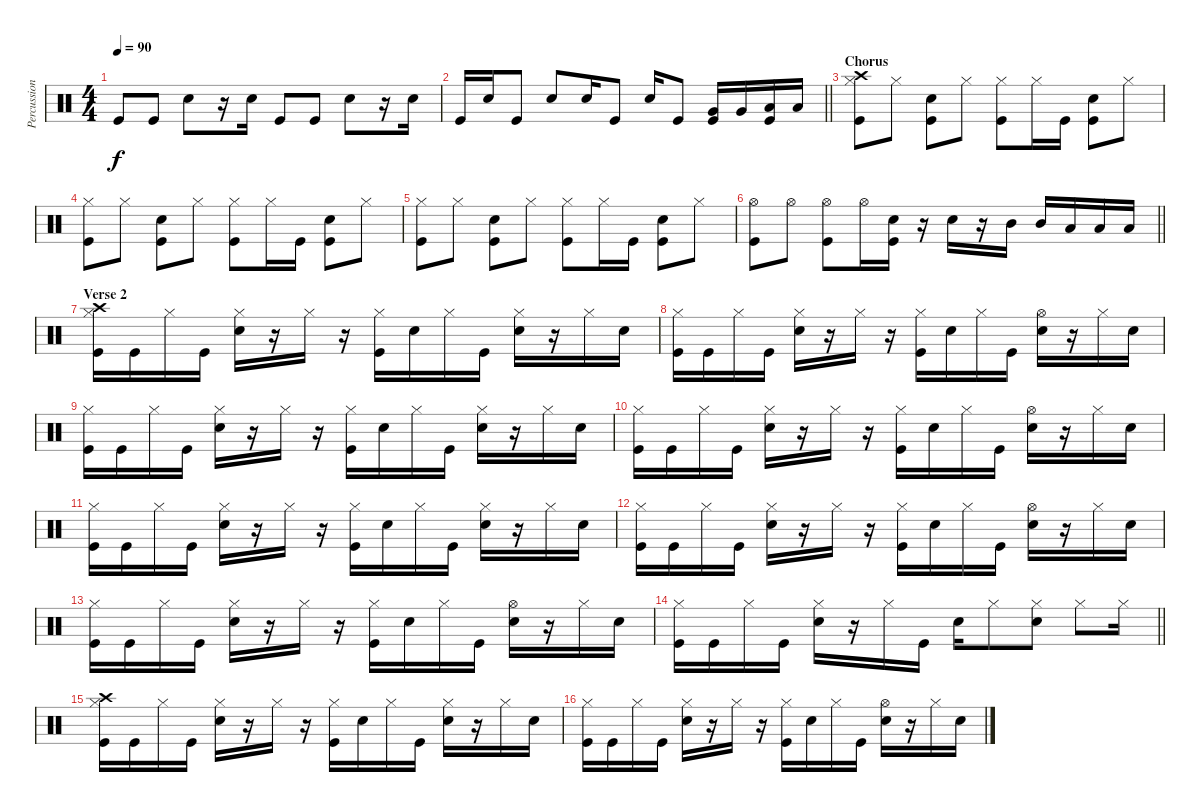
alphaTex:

\track ("Percussion" "Percussion") {instrument percussion}
\staff {score}
\articulation defaults
\ts (4 4)
\tempo 90
\clef neutral
\ks c "Kick (hit)".8{dy f} "Kick (hit)".8 "Snare (hit) 2".8
r.16 "Snare (hit) 2".16 "Kick (hit)".8 "Kick (hit)".8 "Snare (hit) 2".8 r.16 "Snare (hit) 2".16 |
\barLineRight lightlight "Kick (hit)".16 "Snare (hit) 2".16 "Kick (hit)".8 "Snare (hit) 2".8 "Snare (hit) 2".16 "Kick (hit)".8 "Snare (hit) 2".16 "Kick (hit)".8
("Very Low Tom (hit)" "Kick (hit)").16 "Very Low Tom (hit)".16 ("Low Floor Tom (hit)" "Kick (hit)").16 "Low Floor Tom (hit)".16 |
\section ("" "Chorus")
("Crash high (hit)" "Hi-Hat (closed)" "Kick (hit)").8 "Hi-Hat (closed)".8 ("Snare (hit) 2" "Kick (hit)").8 "Hi-Hat (closed)".8 ("Hi-Hat (closed)" "Kick (hit)").8 "Hi-Hat (closed)".16 "Kick (hit)".16 ("Snare (hit) 2" "Kick (hit)").8 "Hi-Hat (closed)".8 |
("Hi-Hat (closed)" "Kick (hit)").8 "Hi-Hat (closed)".8 ("Snare (hit) 2" "Kick (hit)").8 "Hi-Hat (closed)".8 ("Hi-Hat (closed)" "Kick (hit)").8 "Hi-Hat (closed)".16 "Kick (hit)".16 ("Snare (hit) 2" "Kick (hit)").8 "Hi-Hat (closed)".8 |
("Hi-Hat (closed)" "Kick (hit)").8 "Hi-Hat (closed)".8 ("Snare (hit) 2" "Kick (hit)").8 "Hi-Hat (closed)".8 ("Hi-Hat (closed)" "Kick (hit)").8 "Hi-Hat (closed)".16 "Kick (hit)".16 ("Snare (hit) 2" "Kick (hit)").8 "Hi-Hat (closed)".8 |
\barLineRight lightlight
("Hi-Hat (open)" "Kick (hit)").8 "Hi-Hat (open)".8 ("Hi-Hat (open)" "Kick (hit)").8 "Hi-Hat (open)".16 ("Snare (hit) 2" "Kick (hit)").16 r.16 "Snare (hit) 2".16 r.16 "Mid Tom (hit)".16 "Mid Tom (hit)".16 "Low Tom (hit)".16 "Low Tom (hit)".16 "Low Floor Tom (hit)".16 |
\section ("" "Verse 2")
("Crash high (hit)" "Hi-Hat (closed)" "Kick (hit)").16 "Kick (hit)".16 "Hi-Hat (closed)".16 "Kick (hit)".16 ("Hi-Hat (closed)" "Snare (hit) 2").16 r.16 "Hi-Hat (closed)".16 r.16 ("Hi-Hat (closed)" "Kick (hit)").16 "Snare (hit) 2".16 "Hi-Hat (closed)".16 "Kick (hit)".16 ("Hi-Hat (closed)" "Snare (hit) 2").16 r.16 "Hi-Hat (closed)".16 "Snare (hit) 2".16 |
("Hi-Hat (closed)" "Kick (hit)").16 "Kick (hit)".16 "Hi-Hat (closed)".16 "Kick (hit)".16 ("Hi-Hat (closed)" "Snare (hit) 2").16 r.16 "Hi-Hat (closed)".16 r.16 ("Hi-Hat (closed)" "Kick (hit)").16 "Snare (hit) 2".16 "Hi-Hat (closed)".16 "Kick (hit)".16 ("Hi-Hat (open)" "Snare (hit) 2").16 r.16 "Hi-Hat (closed)".16 "Snare (hit) 2".16 |
("Hi-Hat (closed)" "Kick (hit)").16 "Kick (hit)".16 "Hi-Hat (closed)".16 "Kick (hit)".16 ("Hi-Hat (closed)" "Snare (hit) 2").16 r.16 "Hi-Hat (closed)".16 r.16 ("Hi-Hat (closed)" "Kick (hit)").16 "Snare (hit) 2".16 "Hi-Hat (closed)".16 "Kick (hit)".16 ("Hi-Hat (closed)" "Snare (hit) 2").16 r.16 "Hi-Hat (closed)".16 "Snare (hit) 2".16 |
("Hi-Hat (closed)" "Kick (hit)").16 "Kick (hit)".16 "Hi-Hat (closed)".16 "Kick (hit)".16 ("Hi-Hat (closed)" "Snare (hit) 2").16 r.16 "Hi-Hat (closed)".16 r.16 ("Hi-Hat (closed)" "Kick (hit)").16 "Snare (hit) 2".16 "Hi-Hat (closed)".16 "Kick (hit)".16 ("Hi-Hat (open)" "Snare (hit) 2").16 r.16 "Hi-Hat (closed)".16 "Snare (hit) 2".16 |
("Hi-Hat (closed)" "Kick (hit)").16 "Kick (hit)".16 "Hi-Hat (closed)".16 "Kick (hit)".16 ("Hi-Hat (closed)" "Snare (hit) 2").16 r.16 "Hi-Hat (closed)".16 r.16 ("Hi-Hat (closed)" "Kick (hit)").16 "Snare (hit) 2".16 "Hi-Hat (closed)".16 "Kick (hit)".16 ("Hi-Hat (closed)" "Snare (hit) 2").16 r.16 "Hi-Hat (closed)".16 "Snare (hit) 2".16 |
("Hi-Hat (closed)" "Kick (hit)").16 "Kick (hit)".16 "Hi-Hat (closed)".16 "Kick (hit)".16 ("Hi-Hat (closed)" "Snare (hit) 2").16 r.16 "Hi-Hat (closed)".16 r.16 ("Hi-Hat (closed)" "Kick (hit)").16 "Snare (hit) 2".16 "Hi-Hat (closed)".16 "Kick (hit)".16 ("Hi-Hat (open)" "Snare (hit) 2").16 r.16 "Hi-Hat (closed)".16 "Snare (hit) 2".16 |
("Hi-Hat (closed)" "Kick (hit)").16 "Kick (hit)".16 "Hi-Hat (closed)".16 "Kick (hit)".16 ("Hi-Hat (closed)" "Snare (hit) 2").16 r.16 "Hi-Hat (closed)".16 r.16 ("Hi-Hat (closed)" "Kick (hit)").16 "Snare (hit) 2".16 "Hi-Hat (closed)".16 "Kick (hit)".16 ("Hi-Hat (open)" "Snare (hit) 2").16 r.16 "Hi-Hat (closed)".16 "Snare (hit) 2".16 |
\barLineRight lightlight
("Hi-Hat (closed)" "Kick (hit)").16 "Kick (hit)".16 "Hi-Hat (closed)".16 "Kick (hit)".16 ("Hi-Hat (closed)" "Snare (hit) 2").16 r.16 "Hi-Hat (closed)".16 "Kick (hit)".16 "Snare (hit) 2".16 "Hi-Hat (closed)".8 ("Hi-Hat (closed)" "Snare (hit) 2").8 "Hi-Hat (closed)".8 "Hi-Hat (closed)".16 |
("Crash high (hit)" "Hi-Hat (closed)" "Kick (hit)").16 "Kick (hit)".16 "Hi-Hat (closed)".16 "Kick (hit)".16 ("Hi-Hat (closed)" "Snare (hit) 2").16 r.16 "Hi-Hat (closed)".16 r.16 ("Hi-Hat (closed)" "Kick (hit)").16 "Snare (hit) 2".16 "Hi-Hat (closed)".16 "Kick (hit)".16 ("Hi-Hat (closed)" "Snare (hit) 2").16 r.16 "Hi-Hat (closed)".16 "Snare (hit) 2".16 |
("Hi-Hat (closed)" "Kick (hit)").16 "Kick (hit)".16 "Hi-Hat (closed)".16 "Kick (hit)".16 ("Hi-Hat (closed)" "Snare (hit) 2").16 r.16 "Hi-Hat (closed)".16 r.16 ("Hi-Hat (closed)" "Kick (hit)").16 "Snare (hit) 2".16 "Hi-Hat (closed)".16 "Kick (hit)".16 ("Hi-Hat (open)" "Snare (hit) 2").16 r.16 "Hi-Hat (closed)".16 "Snare (hit) 2".16
